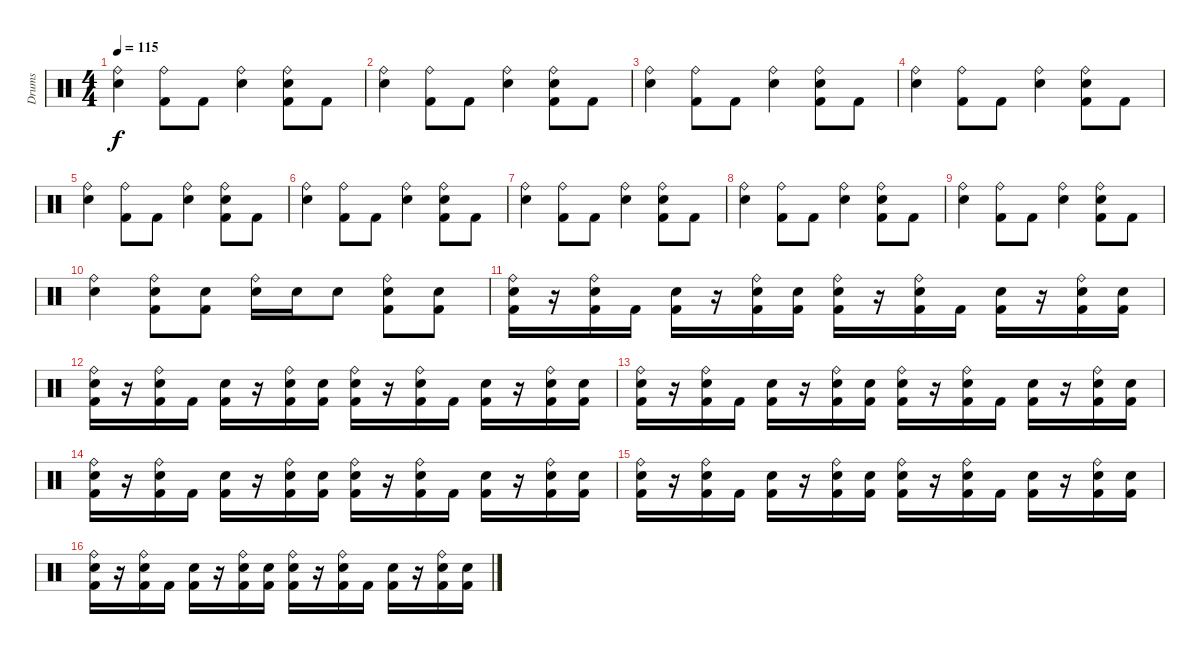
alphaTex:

\track ("Drums" "Drums") {instrument percussion}
\staff {score}
\articulation defaults
\ts (4 4)
\tempo 115
\clef neutral
\ks c
("Ride (bell)" "Snare (hit) 2").4{dy f} ("Ride (bell)" "Kick (hit) 2").8 "Kick (hit) 2".8 ("Ride (bell)" "Electric Snare (hit)").4 ("Ride (bell)" "Kick (hit) 2" "Electric Snare (hit)").8 "Kick (hit) 2".8 |
("Ride (bell)" "Snare (hit) 2").4 ("Ride (bell)" "Kick (hit) 2").8 "Kick (hit) 2".8 ("Ride (bell)" "Electric Snare (hit)").4 ("Ride (bell)" "Kick (hit) 2" "Electric Snare (hit)").8 "Kick (hit) 2".8 |
("Ride (bell)" "Snare (hit) 2").4 ("Ride (bell)" "Kick (hit) 2").8 "Kick (hit) 2".8 ("Ride (bell)" "Electric Snare (hit)").4 ("Ride (bell)" "Kick (hit) 2" "Electric Snare (hit)").8 "Kick (hit) 2".8 |
("Ride (bell)" "Snare (hit) 2").4 ("Ride (bell)" "Kick (hit) 2").8 "Kick (hit) 2".8 ("Ride (bell)" "Electric Snare (hit)").4 ("Ride (bell)" "Kick (hit) 2" "Electric Snare (hit)").8 "Kick (hit) 2".8 |
("Ride (bell)" "Snare (hit) 2").4 ("Ride (bell)" "Kick (hit) 2").8 "Kick (hit) 2".8 ("Ride (bell)" "Electric Snare (hit)").4 ("Ride (bell)" "Kick (hit) 2" "Electric Snare (hit)").8 "Kick (hit) 2".8 |
("Ride (bell)" "Snare (hit) 2").4 ("Ride (bell)" "Kick (hit) 2").8 "Kick (hit) 2".8 ("Ride (bell)" "Electric Snare (hit)").4 ("Ride (bell)" "Kick (hit) 2" "Electric Snare (hit)").8 "Kick (hit) 2".8 |
("Ride (bell)" "Snare (hit) 2").4 ("Ride (bell)" "Kick (hit) 2").8 "Kick (hit) 2".8 ("Ride (bell)" "Electric Snare (hit)").4 ("Ride (bell)" "Kick (hit) 2" "Electric Snare (hit)").8 "Kick (hit) 2".8 |
("Ride (bell)" "Snare (hit) 2").4 ("Ride (bell)" "Kick (hit) 2").8 "Kick (hit) 2".8 ("Ride (bell)" "Electric Snare (hit)").4 ("Ride (bell)" "Kick (hit) 2" "Electric Snare (hit)").8 "Kick (hit) 2".8 |
("Ride (bell)" "Snare (hit) 2").4 ("Ride (bell)" "Kick (hit) 2").8 "Kick (hit) 2".8 ("Ride (bell)" "Electric Snare (hit)").4 ("Ride (bell)" "Kick (hit) 2" "Electric Snare (hit)").8 "Kick (hit) 2".8 |
("Ride (bell)" "Snare (hit) 2").4 ("Ride (bell)" "Kick (hit) 2" "Electric Snare (hit)").8 ("Kick (hit) 2" "Electric Snare (hit)").8 ("Ride (bell)" "Electric Snare (hit)").16 "Electric Snare (hit)".16 "Electric Snare (hit)".8 ("Ride (bell)" "Kick (hit) 2" "Electric Snare (hit)").8 ("Kick (hit) 2" "Electric Snare (hit)").8 |
("Ride (bell)" "Snare (hit) 2" "Kick (hit) 2").16 r.16 ("Ride (bell)" "Snare (hit) 2" "Kick (hit) 2").16 "Kick (hit) 2".16 ("Electric Snare (hit)" "Kick (hit) 2").16 r.16 ("Ride (bell)" "Snare (hit) 2" "Kick (hit) 2").16 ("Snare (hit) 2" "Kick (hit) 2").16 ("Ride (bell)" "Snare (hit) 2" "Kick (hit) 2").16 r.16 ("Ride (bell)" "Snare (hit) 2" "Kick (hit) 2").16 "Kick (hit) 2".16 ("Electric Snare (hit)" "Kick (hit) 2").16 r.16 ("Ride (bell)" "Snare (hit) 2" "Kick (hit) 2").16 ("Snare (hit) 2" "Kick (hit) 2").16 |
("Ride (bell)" "Snare (hit) 2" "Kick (hit) 2").16 r.16 ("Ride (bell)" "Snare (hit) 2" "Kick (hit) 2").16 "Kick (hit) 2".16 ("Electric Snare (hit)" "Kick (hit) 2").16 r.16 ("Ride (bell)" "Snare (hit) 2" "Kick (hit) 2").16 ("Snare (hit) 2" "Kick (hit) 2").16 ("Ride (bell)" "Snare (hit) 2" "Kick (hit) 2").16 r.16 ("Ride (bell)" "Snare (hit) 2" "Kick (hit) 2").16 "Kick (hit) 2".16 ("Electric Snare (hit)" "Kick (hit) 2").16 r.16 ("Ride (bell)" "Snare (hit) 2" "Kick (hit) 2").16 ("Snare (hit) 2" "Kick (hit) 2").16 |
("Ride (bell)" "Snare (hit) 2" "Kick (hit) 2").16 r.16 ("Ride (bell)" "Snare (hit) 2" "Kick (hit) 2").16 "Kick (hit) 2".16 ("Electric Snare (hit)" "Kick (hit) 2").16 r.16 ("Ride (bell)" "Snare (hit) 2" "Kick (hit) 2").16 ("Snare (hit) 2" "Kick (hit) 2").16 ("Ride (bell)" "Snare (hit) 2" "Kick (hit) 2").16 r.16 ("Ride (bell)" "Snare (hit) 2" "Kick (hit) 2").16 "Kick (hit) 2".16 ("Electric Snare (hit)" "Kick (hit) 2").16 r.16 ("Ride (bell)" "Snare (hit) 2" "Kick (hit) 2").16 ("Snare (hit) 2" "Kick (hit) 2").16 |
("Ride (bell)" "Snare (hit) 2" "Kick (hit) 2").16 r.16 ("Ride (bell)" "Snare (hit) 2" "Kick (hit) 2").16 "Kick (hit) 2".16 ("Electric Snare (hit)" "Kick (hit) 2").16 r.16 ("Ride (bell)" "Snare (hit) 2" "Kick (hit) 2").16 ("Snare (hit) 2" "Kick (hit) 2").16 ("Ride (bell)" "Snare (hit) 2" "Kick (hit) 2").16 r.16 ("Ride (bell)" "Snare (hit) 2" "Kick (hit) 2").16 "Kick (hit) 2".16 ("Electric Snare (hit)" "Kick (hit) 2").16 r.16 ("Ride (bell)" "Snare (hit) 2" "Kick (hit) 2").16 ("Snare (hit) 2" "Kick (hit) 2").16 |
("Ride (bell)" "Snare (hit) 2" "Kick (hit) 2").16 r.16 ("Ride (bell)" "Snare (hit) 2" "Kick (hit) 2").16 "Kick (hit) 2".16 ("Electric Snare (hit)" "Kick (hit) 2").16 r.16 ("Ride (bell)" "Snare (hit) 2" "Kick (hit) 2").16 ("Snare (hit) 2" "Kick (hit) 2").16 ("Ride (bell)" "Snare (hit) 2" "Kick (hit) 2").16 r.16 ("Ride (bell)" "Snare (hit) 2" "Kick (hit) 2").16 "Kick (hit) 2".16 ("Electric Snare (hit)" "Kick (hit) 2").16 r.16 ("Ride (bell)" "Snare (hit) 2" "Kick (hit) 2").16 ("Snare (hit) 2" "Kick (hit) 2").16 |
("Ride (bell)" "Snare (hit) 2" "Kick (hit) 2").16 r.16 ("Ride (bell)" "Snare (hit) 2" "Kick (hit) 2").16 "Kick (hit) 2".16 ("Electric Snare (hit)" "Kick (hit) 2").16 r.16 ("Ride (bell)" "Snare (hit) 2" "Kick (hit) 2").16 ("Snare (hit) 2" "Kick (hit) 2").16 ("Ride (bell)" "Snare (hit) 2" "Kick (hit) 2").16 r.16 ("Ride (bell)" "Snare (hit) 2" "Kick (hit) 2").16 "Kick (hit) 2".16 ("Electric Snare (hit)" "Kick (hit) 2").16 r.16 ("Ride (bell)" "Snare (hit) 2" "Kick (hit) 2").16 ("Snare (hit) 2" "Kick (hit) 2").16
